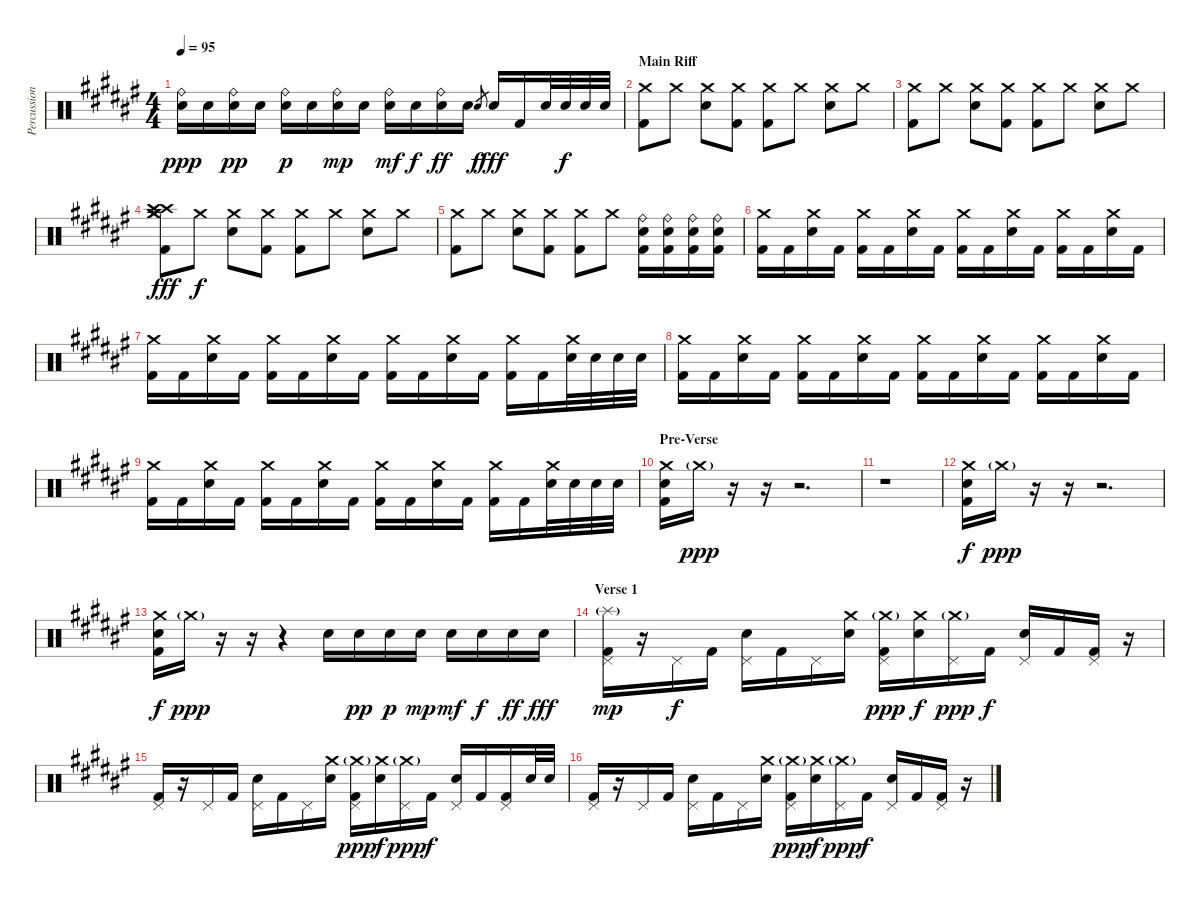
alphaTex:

\track ("Percussions" "Percussion") {instrument percussion}
\staff {score}
\articulation defaults
\ts (4 4)
\tempo 95
\clef neutral
\ks d#minor
("Ride (bell)" "Electric Snare (hit)").16{dy ppp} "Electric Snare (hit)".16 ("Ride (bell)" "Electric Snare (hit)").16{dy pp} "Electric Snare (hit)".16 ("Ride (bell)" "Electric Snare (hit)").16{dy p} "Electric Snare (hit)".16 ("Ride (bell)" "Electric Snare (hit)").16{dy mp} "Electric Snare (hit)".16 ("Ride (bell)" "Electric Snare (hit)").16{dy mf} "Electric Snare (hit)".16{dy f} ("Ride (bell)" "Electric Snare (hit)").16{dy ff} "Electric Snare (hit)".16 "Electric Snare (hit)".8{gr dy f} "Electric Snare (hit)".16{dy fff} "Kick (hit) 2".16 "Electric Snare (hit)".32 "Electric Snare (hit)".32{dy f} "Electric Snare (hit)".32 "Electric Snare (hit)".32 |
\section ("" "Main Riff")
("Crash medium (hit)" "Kick (hit) 2").8 "Crash medium (hit)".8 ("Crash medium (hit)" "Electric Snare (hit)").8 ("Crash medium (hit)" "Kick (hit) 2").8 ("Crash medium (hit)" "Kick (hit) 2").8 "Crash medium (hit)".8 ("Crash medium (hit)" "Electric Snare (hit)").8 "Crash medium (hit)".8 |
("Crash medium (hit)" "Kick (hit) 2").8 "Crash medium (hit)".8 ("Crash medium (hit)" "Electric Snare (hit)").8 ("Crash medium (hit)" "Kick (hit) 2").8 ("Crash medium (hit)" "Kick (hit) 2").8 "Crash medium (hit)".8 ("Crash medium (hit)" "Electric Snare (hit)").8 "Crash medium (hit)".8 |
("Crash medium (hit)" "Crash medium (hit)" "Crash high (hit)" "Crash medium (hit)" "Crash high (hit)" "Kick (hit) 2").8{dy fff} "Crash medium (hit)".8{dy f} ("Crash medium (hit)" "Electric Snare (hit)").8 ("Crash medium (hit)" "Kick (hit) 2").8 ("Crash medium (hit)" "Kick (hit) 2").8 "Crash medium (hit)".8 ("Crash medium (hit)" "Electric Snare (hit)").8 "Crash medium (hit)".8 |
("Crash medium (hit)" "Kick (hit) 2").8 "Crash medium (hit)".8 ("Crash medium (hit)" "Electric Snare (hit)").8 ("Crash medium (hit)" "Kick (hit) 2").8 ("Crash medium (hit)" "Kick (hit) 2").8 "Crash medium (hit)".8 ("Ride (bell)" "Electric Snare (hit)" "Kick (hit) 2").16 ("Ride (bell)" "Electric Snare (hit)" "Kick (hit) 2").16 ("Ride (bell)" "Electric Snare (hit)" "Kick (hit) 2").16 ("Ride (bell)" "Electric Snare (hit)" "Kick (hit) 2").16 |
("Crash medium (hit)" "Kick (hit) 2").16 "Kick (hit) 2".16 ("Crash medium (hit)" "Electric Snare (hit)").16 "Kick (hit) 2".16 ("Crash medium (hit)" "Kick (hit) 2").16 "Kick (hit) 2".16 ("Crash medium (hit)" "Electric Snare (hit)").16 "Kick (hit) 2".16 ("Crash medium (hit)" "Kick (hit) 2").16 "Kick (hit) 2".16 ("Crash medium (hit)" "Electric Snare (hit)").16 "Kick (hit) 2".16 ("Crash medium (hit)" "Kick (hit) 2").16 "Kick (hit) 2".16 ("Crash medium (hit)" "Electric Snare (hit)").16 "Kick (hit) 2".16 |
("Crash medium (hit)" "Kick (hit) 2").16 "Kick (hit) 2".16 ("Crash medium (hit)" "Electric Snare (hit)").16 "Kick (hit) 2".16 ("Crash medium (hit)" "Kick (hit) 2").16 "Kick (hit) 2".16 ("Crash medium (hit)" "Electric Snare (hit)").16 "Kick (hit) 2".16 ("Crash medium (hit)" "Kick (hit) 2").16 "Kick (hit) 2".16 ("Crash medium (hit)" "Electric Snare (hit)").16 "Kick (hit) 2".16 ("Crash medium (hit)" "Kick (hit) 2").16 "Kick (hit) 2".16 ("Crash medium (hit)" "Electric Snare (hit)").32 "Electric Snare (hit)".32 "Electric Snare (hit)".32 "Electric Snare (hit)".32 |
("Crash medium (hit)" "Kick (hit) 2").16 "Kick (hit) 2".16 ("Crash medium (hit)" "Electric Snare (hit)").16 "Kick (hit) 2".16 ("Crash medium (hit)" "Kick (hit) 2").16 "Kick (hit) 2".16 ("Crash medium (hit)" "Electric Snare (hit)").16 "Kick (hit) 2".16 ("Crash medium (hit)" "Kick (hit) 2").16 "Kick (hit) 2".16 ("Crash medium (hit)" "Electric Snare (hit)").16 "Kick (hit) 2".16 ("Crash medium (hit)" "Kick (hit) 2").16 "Kick (hit) 2".16 ("Crash medium (hit)" "Electric Snare (hit)").16 "Kick (hit) 2".16 |
("Crash medium (hit)" "Kick (hit) 2").16 "Kick (hit) 2".16 ("Crash medium (hit)" "Electric Snare (hit)").16 "Kick (hit) 2".16 ("Crash medium (hit)" "Kick (hit) 2").16 "Kick (hit) 2".16 ("Crash medium (hit)" "Electric Snare (hit)").16 "Kick (hit) 2".16 ("Crash medium (hit)" "Kick (hit) 2").16 "Kick (hit) 2".16 ("Crash medium (hit)" "Electric Snare (hit)").16 "Kick (hit) 2".16 ("Crash medium (hit)" "Kick (hit) 2").16 "Kick (hit) 2".16 ("Crash medium (hit)" "Electric Snare (hit)").32 "Electric Snare (hit)".32 "Electric Snare (hit)".32 "Electric Snare (hit)".32 |
\section ("" "Pre-Verse")
("Crash medium (hit)" "Electric Snare (hit)" "Kick (hit) 2").16 "Crash medium (hit)"{g}.16{dy ppp} r.16 r.16 r.2{d} |
r.1 |
("Crash medium (hit)" "Electric Snare (hit)" "Kick (hit) 2").16{dy f} "Crash medium (hit)"{g}.16{dy ppp} r.16 r.16 r.2{d} |
("Crash medium (hit)" "Electric Snare (hit)" "Kick (hit) 2").16{dy f} "Crash medium (hit)"{g}.16{dy ppp} r.16 r.16 r.4 "Electric Snare (hit)".16 "Electric Snare (hit)".16{dy pp} "Electric Snare (hit)".16{dy p} "Electric Snare (hit)".16{dy mp} "Electric Snare (hit)".16{dy mf} "Electric Snare (hit)".16{dy f} "Electric Snare (hit)".16{dy ff} "Electric Snare (hit)".16{dy fff} |
\section ("" "Verse 1")
("Pedal Hi-Hat (hit)" "Splash (hit)"{g} "Kick (hit) 2").16{dy mp} r.16 "Pedal Hi-Hat (hit)".16{dy f} "Kick (hit) 2".16 ("Pedal Hi-Hat (hit)" "Electric Snare (hit)").16 "Kick (hit) 2".16 "Pedal Hi-Hat (hit)".16 ("Crash medium (hit)" "Electric Snare (hit)").16 ("Crash medium (hit)"{g} "Pedal Hi-Hat (hit)" "Kick (hit) 2").16{dy ppp} ("Crash medium (hit)" "Electric Snare (hit)").16{dy f} ("Crash medium (hit)"{g} "Pedal Hi-Hat (hit)").16{dy ppp} "Kick (hit) 2".16{dy f} ("Pedal Hi-Hat (hit)" "Electric Snare (hit)").16 "Kick (hit) 2".16 ("Pedal Hi-Hat (hit)" "Kick (hit) 2").16 r.16 |
("Pedal Hi-Hat (hit)" "Kick (hit) 2").16 r.16 "Pedal Hi-Hat (hit)".16 "Kick (hit) 2".16 ("Pedal Hi-Hat (hit)" "Electric Snare (hit)").16 "Kick (hit) 2".16 "Pedal Hi-Hat (hit)".16 ("Crash medium (hit)" "Electric Snare (hit)").16 ("Crash medium (hit)"{g} "Pedal Hi-Hat (hit)" "Kick (hit) 2").16{dy ppp} ("Crash medium (hit)" "Electric Snare (hit)").16{dy f} ("Crash medium (hit)"{g} "Pedal Hi-Hat (hit)").16{dy ppp} "Kick (hit) 2".16{dy f} ("Pedal Hi-Hat (hit)" "Electric Snare (hit)").16 "Kick (hit) 2".16 ("Pedal Hi-Hat (hit)" "Kick (hit) 2").16 "Electric Snare (hit)".32 "Electric Snare (hit)".32 |
("Pedal Hi-Hat (hit)" "Kick (hit) 2").16 r.16 "Pedal Hi-Hat (hit)".16 "Kick (hit) 2".16 ("Pedal Hi-Hat (hit)" "Electric Snare (hit)").16 "Kick (hit) 2".16 "Pedal Hi-Hat (hit)".16 ("Crash medium (hit)" "Electric Snare (hit)").16 ("Crash medium (hit)"{g} "Pedal Hi-Hat (hit)" "Kick (hit) 2").16{dy ppp} ("Crash medium (hit)" "Electric Snare (hit)").16{dy f} ("Crash medium (hit)"{g} "Pedal Hi-Hat (hit)").16{dy ppp} "Kick (hit) 2".16{dy f} ("Pedal Hi-Hat (hit)" "Electric Snare (hit)").16 "Kick (hit) 2".16 ("Pedal Hi-Hat (hit)" "Kick (hit) 2").16 r.16
